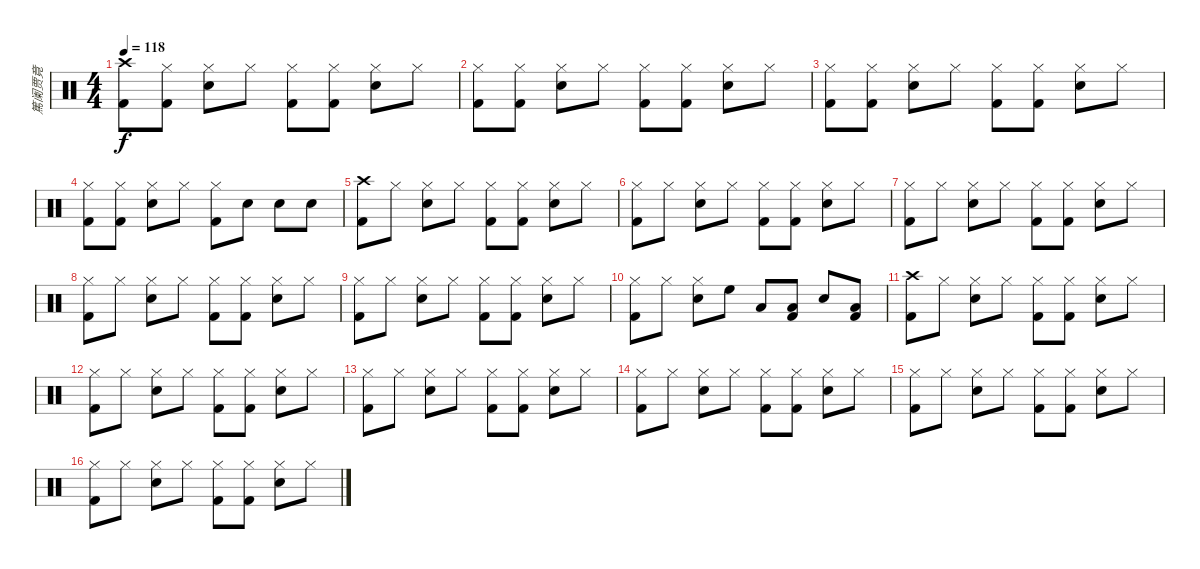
\track ("篤阑贾竟" "篤阑贾竟") {instrument percussion}
\staff {score}
\articulation defaults
\ts (4 4)
\tempo 118
\clef neutral
\ks c
("Crash high (hit)" "Kick (hit) 2").8{dy f} ("Hi-Hat (closed)" "Kick (hit) 2").8 ("Hi-Hat (closed)" "Snare (hit) 2").8 "Hi-Hat (closed)".8 ("Hi-Hat (closed)" "Kick (hit) 2").8 ("Hi-Hat (closed)" "Kick (hit) 2").8 ("Hi-Hat (closed)" "Snare (hit) 2").8 "Hi-Hat (closed)".8 |
("Hi-Hat (closed)" "Kick (hit) 2").8 ("Hi-Hat (closed)" "Kick (hit) 2").8 ("Hi-Hat (closed)" "Snare (hit) 2").8 "Hi-Hat (closed)".8 ("Hi-Hat (closed)" "Kick (hit) 2").8 ("Hi-Hat (closed)" "Kick (hit) 2").8 ("Hi-Hat (closed)" "Snare (hit) 2").8 "Hi-Hat (closed)".8 |
("Hi-Hat (closed)" "Kick (hit) 2").8 ("Hi-Hat (closed)" "Kick (hit) 2").8 ("Hi-Hat (closed)" "Snare (hit) 2").8 "Hi-Hat (closed)".8 ("Hi-Hat (closed)" "Kick (hit) 2").8 ("Hi-Hat (closed)" "Kick (hit) 2").8 ("Hi-Hat (closed)" "Snare (hit) 2").8 "Hi-Hat (closed)".8 |
("Hi-Hat (closed)" "Kick (hit) 2").8 ("Hi-Hat (closed)" "Kick (hit) 2").8 ("Hi-Hat (closed)" "Snare (hit) 2").8 "Hi-Hat (closed)".8 ("Hi-Hat (closed)" "Kick (hit) 2").8 "Snare (hit) 2".8 "Snare (hit) 2".8 "Snare (hit) 2".8 |
("Crash high (hit)" "Kick (hit) 2").8 "Hi-Hat (closed)".8 ("Hi-Hat (closed)" "Snare (hit) 2").8 "Hi-Hat (closed)".8 ("Hi-Hat (closed)" "Kick (hit) 2").8 ("Hi-Hat (closed)" "Kick (hit) 2").8 ("Hi-Hat (closed)" "Snare (hit) 2").8 "Hi-Hat (closed)".8 |
("Hi-Hat (closed)" "Kick (hit) 2").8 "Hi-Hat (closed)".8 ("Hi-Hat (closed)" "Snare (hit) 2").8 "Hi-Hat (closed)".8 ("Hi-Hat (closed)" "Kick (hit) 2").8 ("Hi-Hat (closed)" "Kick (hit) 2").8 ("Hi-Hat (closed)" "Snare (hit) 2").8 "Hi-Hat (closed)".8 |
("Hi-Hat (closed)" "Kick (hit) 2").8 "Hi-Hat (closed)".8 ("Hi-Hat (closed)" "Snare (hit) 2").8 "Hi-Hat (closed)".8 ("Hi-Hat (closed)" "Kick (hit) 2").8 ("Hi-Hat (closed)" "Kick (hit) 2").8 ("Hi-Hat (closed)" "Snare (hit) 2").8 "Hi-Hat (closed)".8 |
("Hi-Hat (closed)" "Kick (hit) 2").8 "Hi-Hat (closed)".8 ("Hi-Hat (closed)" "Snare (hit) 2").8 "Hi-Hat (closed)".8 ("Hi-Hat (closed)" "Kick (hit) 2").8 ("Hi-Hat (closed)" "Kick (hit) 2").8 ("Hi-Hat (closed)" "Snare (hit) 2").8 "Hi-Hat (closed)".8 |
("Hi-Hat (closed)" "Kick (hit) 2").8 "Hi-Hat (closed)".8 ("Hi-Hat (closed)" "Snare (hit) 2").8 "Hi-Hat (closed)".8 ("Hi-Hat (closed)" "Kick (hit) 2").8 ("Hi-Hat (closed)" "Kick (hit) 2").8 ("Hi-Hat (closed)" "Snare (hit) 2").8 "Hi-Hat (closed)".8 |
("Hi-Hat (closed)" "Kick (hit) 2").8 "Hi-Hat (closed)".8 ("Hi-Hat (closed)" "Snare (hit) 2").8 "High Floor Tom (hit)".8 "Low Tom (hit)".8 ("Low Floor Tom (hit)" "Kick (hit) 2").8 "Snare (hit) 2".8 ("Low Floor Tom (hit)" "Kick (hit) 2").8 |
("Crash high (hit)" "Kick (hit) 2").8 "Hi-Hat (closed)".8 ("Hi-Hat (closed)" "Snare (hit) 2").8 "Hi-Hat (closed)".8 ("Hi-Hat (closed)" "Kick (hit) 2").8 ("Hi-Hat (closed)" "Kick (hit) 2").8 ("Hi-Hat (closed)" "Snare (hit) 2").8 "Hi-Hat (closed)".8 |
("Hi-Hat (closed)" "Kick (hit) 2").8 "Hi-Hat (closed)".8 ("Hi-Hat (closed)" "Snare (hit) 2").8 "Hi-Hat (closed)".8 ("Hi-Hat (closed)" "Kick (hit) 2").8 ("Hi-Hat (closed)" "Kick (hit) 2").8 ("Hi-Hat (closed)" "Snare (hit) 2").8 "Hi-Hat (closed)".8 |
("Hi-Hat (closed)" "Kick (hit) 2").8 "Hi-Hat (closed)".8 ("Hi-Hat (closed)" "Snare (hit) 2").8 "Hi-Hat (closed)".8 ("Hi-Hat (closed)" "Kick (hit) 2").8 ("Hi-Hat (closed)" "Kick (hit) 2").8 ("Hi-Hat (closed)" "Snare (hit) 2").8 "Hi-Hat (closed)".8 |
("Hi-Hat (closed)" "Kick (hit) 2").8 "Hi-Hat (closed)".8 ("Hi-Hat (closed)" "Snare (hit) 2").8 "Hi-Hat (closed)".8 ("Hi-Hat (closed)" "Kick (hit) 2").8 ("Hi-Hat (closed)" "Kick (hit) 2").8 ("Hi-Hat (closed)" "Snare (hit) 2").8 "Hi-Hat (closed)".8 |
("Hi-Hat (closed)" "Kick (hit) 2").8 "Hi-Hat (closed)".8 ("Hi-Hat (closed)" "Snare (hit) 2").8 "Hi-Hat (closed)".8 ("Hi-Hat (closed)" "Kick (hit) 2").8 ("Hi-Hat (closed)" "Kick (hit) 2").8 ("Hi-Hat (closed)" "Snare (hit) 2").8 "Hi-Hat (closed)".8 |
("Hi-Hat (closed)" "Kick (hit) 2").8 "Hi-Hat (closed)".8 ("Hi-Hat (closed)" "Snare (hit) 2").8 "Hi-Hat (closed)".8 ("Hi-Hat (closed)" "Kick (hit) 2").8 ("Hi-Hat (closed)" "Kick (hit) 2").8 ("Hi-Hat (closed)" "Snare (hit) 2").8 "Hi-Hat (closed)".8
